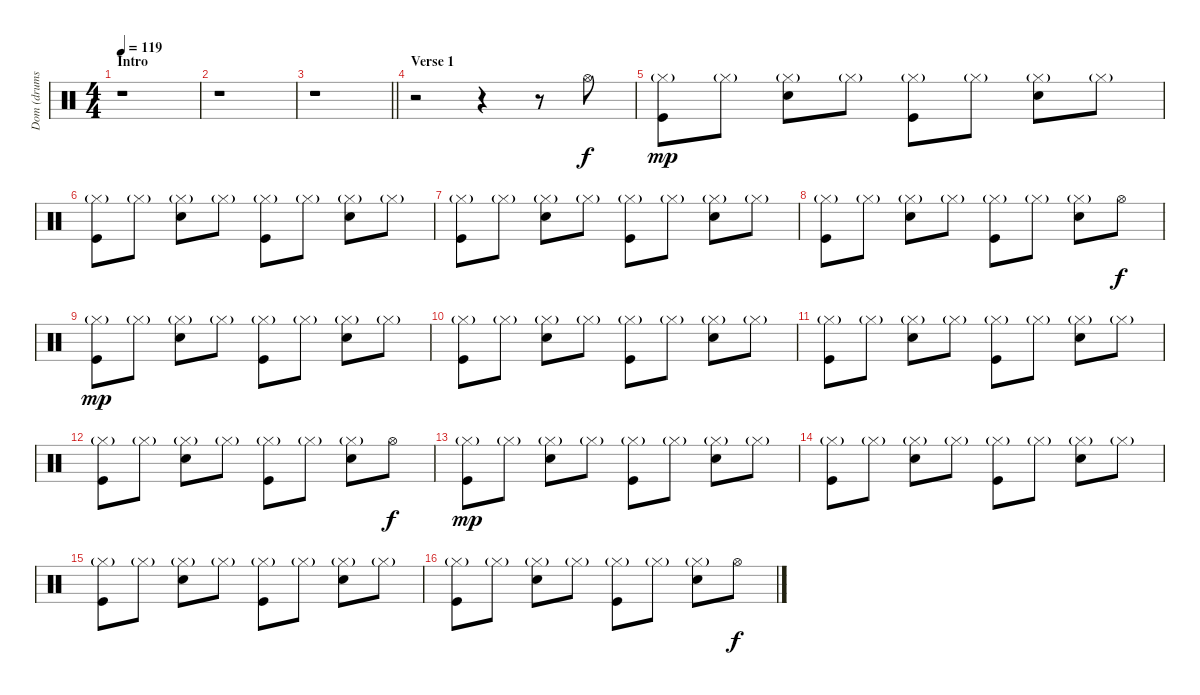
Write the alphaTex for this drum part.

\track ("Dom (drums)" "Dom (drums") {instrument percussion}
\staff {score}
\articulation defaults
\ts (4 4)
\section ("" "Intro")
\tempo 119
\clef neutral
\ks c
r.1{dy f} |
r.1 |
\barLineRight lightlight
r.1 |
\section ("" "Verse 1")
r.2 r.4 r.8 "Hi-Hat (open)".8 |
("Hi-Hat (closed)"{g} "Kick (hit)").8{dy mp} "Hi-Hat (closed)"{g}.8 ("Hi-Hat (closed)"{g} "Snare (hit) 2").8 "Hi-Hat (closed)"{g}.8 ("Hi-Hat (closed)"{g} "Kick (hit)").8 "Hi-Hat (closed)"{g}.8 ("Hi-Hat (closed)"{g} "Snare (hit) 2").8 "Hi-Hat (closed)"{g}.8 |
("Hi-Hat (closed)"{g} "Kick (hit)").8 "Hi-Hat (closed)"{g}.8 ("Hi-Hat (closed)"{g} "Snare (hit) 2").8 "Hi-Hat (closed)"{g}.8 ("Hi-Hat (closed)"{g} "Kick (hit)").8 "Hi-Hat (closed)"{g}.8 ("Hi-Hat (closed)"{g} "Snare (hit) 2").8 "Hi-Hat (closed)"{g}.8 |
("Hi-Hat (closed)"{g} "Kick (hit)").8 "Hi-Hat (closed)"{g}.8 ("Hi-Hat (closed)"{g} "Snare (hit) 2").8 "Hi-Hat (closed)"{g}.8 ("Hi-Hat (closed)"{g} "Kick (hit)").8 "Hi-Hat (closed)"{g}.8 ("Hi-Hat (closed)"{g} "Snare (hit) 2").8 "Hi-Hat (closed)"{g}.8 |
("Hi-Hat (closed)"{g} "Kick (hit)").8 "Hi-Hat (closed)"{g}.8 ("Hi-Hat (closed)"{g} "Snare (hit) 2").8 "Hi-Hat (closed)"{g}.8 ("Hi-Hat (closed)"{g} "Kick (hit)").8 "Hi-Hat (closed)"{g}.8 ("Hi-Hat (closed)"{g} "Snare (hit) 2").8 "Hi-Hat (open)".8{dy f} |
("Hi-Hat (closed)"{g} "Kick (hit)").8{dy mp} "Hi-Hat (closed)"{g}.8 ("Hi-Hat (closed)"{g} "Snare (hit) 2").8 "Hi-Hat (closed)"{g}.8 ("Hi-Hat (closed)"{g} "Kick (hit)").8 "Hi-Hat (closed)"{g}.8 ("Hi-Hat (closed)"{g} "Snare (hit) 2").8 "Hi-Hat (closed)"{g}.8 |
("Hi-Hat (closed)"{g} "Kick (hit)").8 "Hi-Hat (closed)"{g}.8 ("Hi-Hat (closed)"{g} "Snare (hit) 2").8 "Hi-Hat (closed)"{g}.8 ("Hi-Hat (closed)"{g} "Kick (hit)").8 "Hi-Hat (closed)"{g}.8 ("Hi-Hat (closed)"{g} "Snare (hit) 2").8 "Hi-Hat (closed)"{g}.8 |
("Hi-Hat (closed)"{g} "Kick (hit)").8 "Hi-Hat (closed)"{g}.8 ("Hi-Hat (closed)"{g} "Snare (hit) 2").8 "Hi-Hat (closed)"{g}.8 ("Hi-Hat (closed)"{g} "Kick (hit)").8 "Hi-Hat (closed)"{g}.8 ("Hi-Hat (closed)"{g} "Snare (hit) 2").8 "Hi-Hat (closed)"{g}.8 |
("Hi-Hat (closed)"{g} "Kick (hit)").8 "Hi-Hat (closed)"{g}.8 ("Hi-Hat (closed)"{g} "Snare (hit) 2").8 "Hi-Hat (closed)"{g}.8 ("Hi-Hat (closed)"{g} "Kick (hit)").8 "Hi-Hat (closed)"{g}.8 ("Hi-Hat (closed)"{g} "Snare (hit) 2").8 "Hi-Hat (open)".8{dy f} |
("Hi-Hat (closed)"{g} "Kick (hit)").8{dy mp} "Hi-Hat (closed)"{g}.8 ("Hi-Hat (closed)"{g} "Snare (hit) 2").8 "Hi-Hat (closed)"{g}.8 ("Hi-Hat (closed)"{g} "Kick (hit)").8 "Hi-Hat (closed)"{g}.8 ("Hi-Hat (closed)"{g} "Snare (hit) 2").8 "Hi-Hat (closed)"{g}.8 |
("Hi-Hat (closed)"{g} "Kick (hit)").8 "Hi-Hat (closed)"{g}.8 ("Hi-Hat (closed)"{g} "Snare (hit) 2").8 "Hi-Hat (closed)"{g}.8 ("Hi-Hat (closed)"{g} "Kick (hit)").8 "Hi-Hat (closed)"{g}.8 ("Hi-Hat (closed)"{g} "Snare (hit) 2").8 "Hi-Hat (closed)"{g}.8 |
("Hi-Hat (closed)"{g} "Kick (hit)").8 "Hi-Hat (closed)"{g}.8 ("Hi-Hat (closed)"{g} "Snare (hit) 2").8 "Hi-Hat (closed)"{g}.8 ("Hi-Hat (closed)"{g} "Kick (hit)").8 "Hi-Hat (closed)"{g}.8 ("Hi-Hat (closed)"{g} "Snare (hit) 2").8 "Hi-Hat (closed)"{g}.8 |
("Hi-Hat (closed)"{g} "Kick (hit)").8 "Hi-Hat (closed)"{g}.8 ("Hi-Hat (closed)"{g} "Snare (hit) 2").8 "Hi-Hat (closed)"{g}.8 ("Hi-Hat (closed)"{g} "Kick (hit)").8 "Hi-Hat (closed)"{g}.8 ("Hi-Hat (closed)"{g} "Snare (hit) 2").8 "Hi-Hat (open)".8{dy f}
